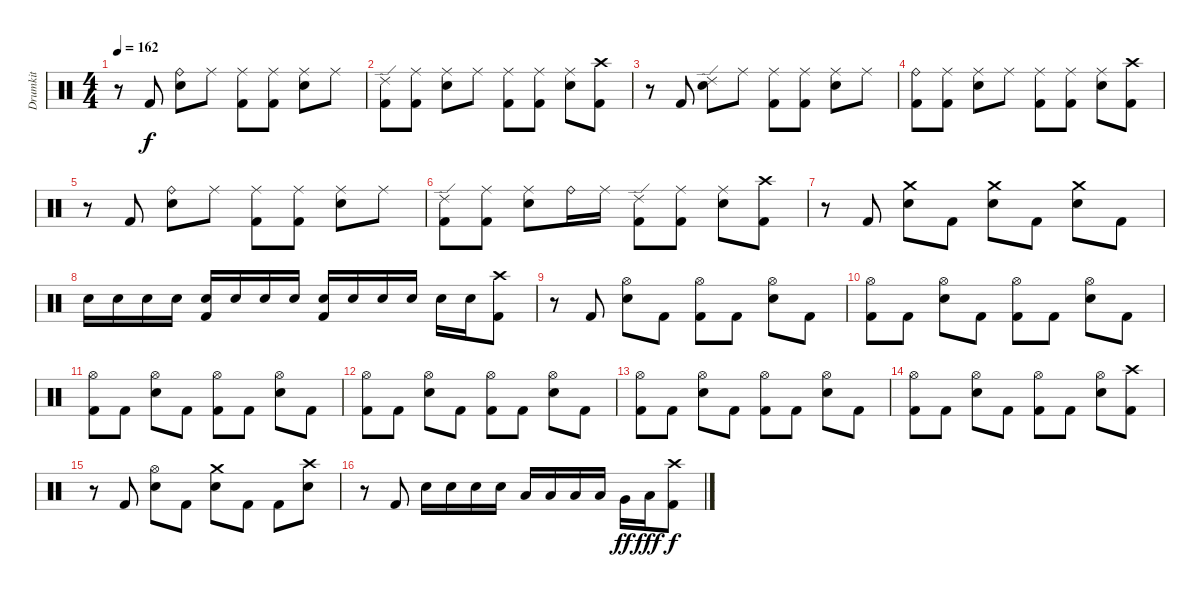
\track ("Drumkit" "Drumkit") {instrument percussion}
\staff {score}
\articulation defaults
\ts (4 4)
\tempo 162
\clef neutral
\ks c
r.8{dy f} "Kick (hit) 2".8 ("Ride (bell)" "Electric Snare (hit)").8 "Ride (middle)".8 ("Ride (middle)" "Kick (hit) 2").8 ("Ride (middle)" "Kick (hit) 2").8 ("Ride (middle)" "Electric Snare (hit)").8 "Ride (middle)".8 |
("Ride (edge) 2" "Kick (hit) 2").8 ("Ride (middle)" "Kick (hit) 2").8 ("Ride (middle)" "Electric Snare (hit)").8 "Ride (middle)".8 ("Ride (middle)" "Kick (hit) 2").8 ("Ride (middle)" "Kick (hit) 2").8 ("Ride (middle)" "Electric Snare (hit)").8 ("Crash high (hit)" "Kick (hit) 2").8 |
r.8 "Kick (hit) 2".8 ("Ride (edge) 2" "Electric Snare (hit)").8 "Ride (middle)".8 ("Ride (middle)" "Kick (hit) 2").8 ("Ride (middle)" "Kick (hit) 2").8 ("Ride (middle)" "Electric Snare (hit)").8 "Ride (middle)".8 |
("Ride (bell)" "Kick (hit) 2").8 ("Ride (middle)" "Kick (hit) 2").8 ("Ride (middle)" "Electric Snare (hit)").8 "Ride (middle)".8 ("Ride (middle)" "Kick (hit) 2").8 ("Ride (middle)" "Kick (hit) 2").8 ("Ride (middle)" "Electric Snare (hit)").8 ("Crash high (hit)" "Kick (hit) 2").8 |
r.8 "Kick (hit) 2".8 ("Ride (bell)" "Electric Snare (hit)").8 "Ride (middle)".8 ("Ride (middle)" "Kick (hit) 2").8 ("Ride (middle)" "Kick (hit) 2").8 ("Ride (middle)" "Electric Snare (hit)").8 "Ride (middle)".8 |
("Ride (edge) 2" "Kick (hit) 2").8 ("Ride (middle)" "Kick (hit) 2").8 ("Ride (middle)" "Electric Snare (hit)").8 "Ride (bell)".16 "Ride (middle)".16 ("Ride (edge) 2" "Kick (hit) 2").8 ("Ride (middle)" "Kick (hit) 2").8 ("Ride (middle)" "Electric Snare (hit)").8 ("Crash high (hit)" "Kick (hit) 2").8 |
r.8 "Kick (hit) 2".8 ("Crash medium (hit)" "Electric Snare (hit)").8 "Kick (hit) 2".8 ("Crash medium (hit)" "Electric Snare (hit)").8 "Kick (hit) 2".8 ("Crash medium (hit)" "Electric Snare (hit)").8 "Kick (hit) 2".8 |
"Electric Snare (hit)".16 "Electric Snare (hit)".16 "Electric Snare (hit)".16 "Electric Snare (hit)".16 ("Electric Snare (hit)" "Kick (hit) 2").16 "Electric Snare (hit)".16 "Electric Snare (hit)".16 "Electric Snare (hit)".16 ("Electric Snare (hit)" "Kick (hit) 2").16 "Electric Snare (hit)".16 "Electric Snare (hit)".16 "Electric Snare (hit)".16 "Electric Snare (hit)".16 "Electric Snare (hit)".16 ("Crash high (hit)" "Kick (hit) 2").8 |
r.8 "Kick (hit) 2".8 ("Hi-Hat (open)" "Electric Snare (hit)").8 "Kick (hit) 2".8 ("Hi-Hat (open)" "Kick (hit) 2").8 "Kick (hit) 2".8 ("Hi-Hat (open)" "Electric Snare (hit)").8 "Kick (hit) 2".8 |
("Hi-Hat (open)" "Kick (hit) 2").8 "Kick (hit) 2".8 ("Hi-Hat (open)" "Electric Snare (hit)").8 "Kick (hit) 2".8 ("Hi-Hat (open)" "Kick (hit) 2").8 "Kick (hit) 2".8 ("Hi-Hat (open)" "Electric Snare (hit)").8 "Kick (hit) 2".8 |
("Hi-Hat (open)" "Kick (hit) 2").8 "Kick (hit) 2".8 ("Hi-Hat (open)" "Electric Snare (hit)").8 "Kick (hit) 2".8 ("Hi-Hat (open)" "Kick (hit) 2").8 "Kick (hit) 2".8 ("Hi-Hat (open)" "Electric Snare (hit)").8 "Kick (hit) 2".8 |
("Hi-Hat (open)" "Kick (hit) 2").8 "Kick (hit) 2".8 ("Hi-Hat (open)" "Electric Snare (hit)").8 "Kick (hit) 2".8 ("Hi-Hat (open)" "Kick (hit) 2").8 "Kick (hit) 2".8 ("Hi-Hat (open)" "Electric Snare (hit)").8 "Kick (hit) 2".8 |
("Hi-Hat (open)" "Kick (hit) 2").8 "Kick (hit) 2".8 ("Hi-Hat (open)" "Electric Snare (hit)").8 "Kick (hit) 2".8 ("Hi-Hat (open)" "Kick (hit) 2").8 "Kick (hit) 2".8 ("Hi-Hat (open)" "Electric Snare (hit)").8 "Kick (hit) 2".8 |
("Hi-Hat (open)" "Kick (hit) 2").8 "Kick (hit) 2".8 ("Hi-Hat (open)" "Electric Snare (hit)").8 "Kick (hit) 2".8 ("Hi-Hat (open)" "Kick (hit) 2").8 "Kick (hit) 2".8 ("Hi-Hat (open)" "Electric Snare (hit)").8 ("Crash high (hit)" "Kick (hit) 2").8 |
r.8 "Kick (hit) 2".8 ("Hi-Hat (open)" "Electric Snare (hit)").8 "Kick (hit) 2".8 ("Crash medium (hit)" "Electric Snare (hit)").8 "Kick (hit) 2".8 "Kick (hit) 2".8 ("Crash high (hit)" "Electric Snare (hit)").8 |
r.8 "Kick (hit) 2".8 "Electric Snare (hit)".16 "Electric Snare (hit)".16 "Electric Snare (hit)".16 "Electric Snare (hit)".16 "Low Tom (hit)".16 "Low Tom (hit)".16 "Low Tom (hit)".16 "Low Tom (hit)".16 "Very Low Tom (hit)".16{dy ff} "Low Floor Tom (hit)".16{dy fff} ("Crash high (hit)" "Kick (hit) 2").8{dy f}
